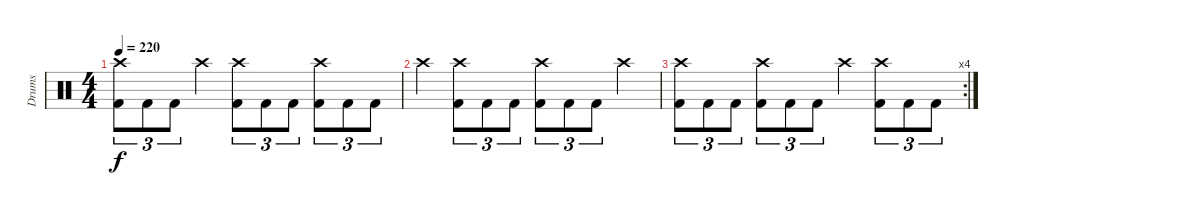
\track ("Drums" "Drums") {instrument percussion}
\staff {score}
\articulation defaults
\ts (4 4)
\tempo 220
\clef neutral
\ks c
("Kick (hit) 2" "Crash high (hit)").8{tu (3 2) dy f} "Kick (hit) 2".8{tu (3 2)} "Kick (hit) 2".8{tu (3 2)} "Crash high (hit)".4 ("Kick (hit) 2" "Crash high (hit)").8{tu (3 2)} "Kick (hit) 2".8{tu (3 2)} "Kick (hit) 2".8{tu (3 2)} ("Kick (hit) 2" "Crash high (hit)").8{tu (3 2)} "Kick (hit) 2".8{tu (3 2)} "Kick (hit) 2".8{tu (3 2)} |
"Crash high (hit)".4 ("Kick (hit) 2" "Crash high (hit)").8{tu (3 2)} "Kick (hit) 2".8{tu (3 2)} "Kick (hit) 2".8{tu (3 2)} ("Kick (hit) 2" "Crash high (hit)").8{tu (3 2)} "Kick (hit) 2".8{tu (3 2)} "Kick (hit) 2".8{tu (3 2)} "Crash high (hit)".4 |
\rc 4
("Kick (hit) 2" "Crash high (hit)").8{tu (3 2)} "Kick (hit) 2".8{tu (3 2)} "Kick (hit) 2".8{tu (3 2)} ("Kick (hit) 2" "Crash high (hit)").8{tu (3 2)} "Kick (hit) 2".8{tu (3 2)} "Kick (hit) 2".8{tu (3 2)} "Crash high (hit)".4 ("Kick (hit) 2" "Crash high (hit)").8{tu (3 2)} "Kick (hit) 2".8{tu (3 2)} "Kick (hit) 2".8{tu (3 2)}
